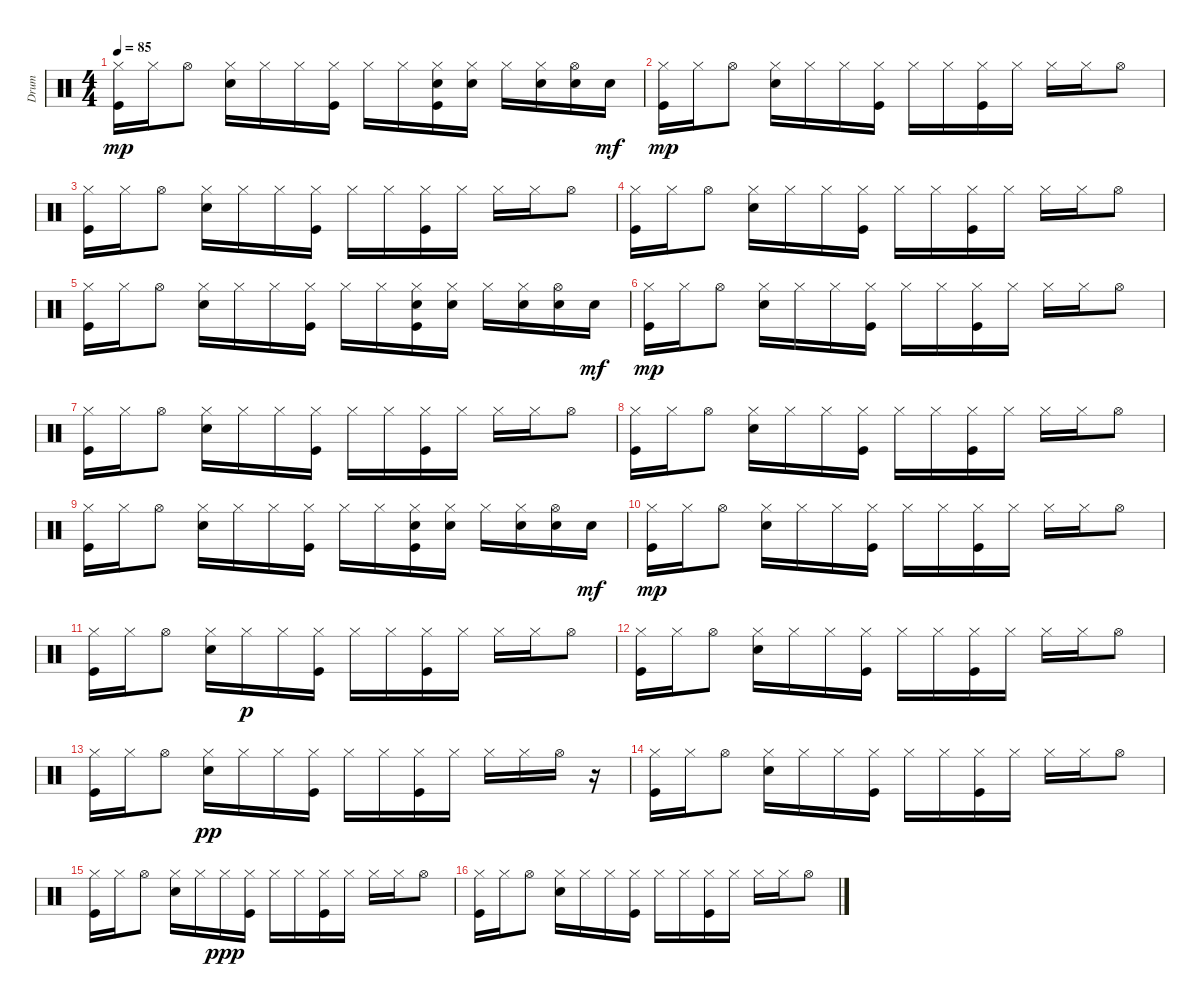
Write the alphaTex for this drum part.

\track ("Drum" "Drum") {instrument percussion}
\staff {score}
\articulation defaults
\ts (4 4)
\tempo 85
\clef neutral
\ks c
("Kick (hit)" "Hi-Hat (closed)").16{dy mp} "Hi-Hat (closed)".16 "Hi-Hat (open)".8 ("Hi-Hat (closed)" "Snare (hit) 2").16 "Hi-Hat (closed)".16 "Hi-Hat (closed)".16 ("Kick (hit)" "Hi-Hat (closed)").16 "Hi-Hat (closed)".16 "Hi-Hat (closed)".16 ("Hi-Hat (closed)" "Snare (hit) 2" "Kick (hit)").16 ("Snare (hit) 2" "Hi-Hat (closed)").16 "Hi-Hat (closed)".16 ("Hi-Hat (closed)" "Snare (hit) 2").16 ("Snare (hit) 2" "Hi-Hat (open)").16 "Snare (hit) 2".16{dy mf} |
("Hi-Hat (closed)" "Kick (hit)").16{dy mp} "Hi-Hat (closed)".16 "Hi-Hat (open)".8 ("Hi-Hat (closed)" "Snare (hit) 2").16 "Hi-Hat (closed)".16 "Hi-Hat (closed)".16 ("Hi-Hat (closed)" "Kick (hit)").16 "Hi-Hat (closed)".16 "Hi-Hat (closed)".16 ("Kick (hit)" "Hi-Hat (closed)").16 "Hi-Hat (closed)".16 "Hi-Hat (closed)".16 "Hi-Hat (closed)".16 "Hi-Hat (open)".8 |
("Kick (hit)" "Hi-Hat (closed)").16 "Hi-Hat (closed)".16 "Hi-Hat (open)".8 ("Snare (hit) 2" "Hi-Hat (closed)").16 "Hi-Hat (closed)".16 "Hi-Hat (closed)".16 ("Hi-Hat (closed)" "Kick (hit)").16 "Hi-Hat (closed)".16 "Hi-Hat (closed)".16 ("Hi-Hat (closed)" "Kick (hit)").16 "Hi-Hat (closed)".16 "Hi-Hat (closed)".16 "Hi-Hat (closed)".16 "Hi-Hat (open)".8 |
("Hi-Hat (closed)" "Kick (hit)").16 "Hi-Hat (closed)".16 "Hi-Hat (open)".8 ("Hi-Hat (closed)" "Snare (hit) 2").16 "Hi-Hat (closed)".16 "Hi-Hat (closed)".16 ("Hi-Hat (closed)" "Kick (hit)").16 "Hi-Hat (closed)".16 "Hi-Hat (closed)".16 ("Hi-Hat (closed)" "Kick (hit)").16 "Hi-Hat (closed)".16 "Hi-Hat (closed)".16 "Hi-Hat (closed)".16 "Hi-Hat (open)".8 |
("Hi-Hat (closed)" "Kick (hit)").16 "Hi-Hat (closed)".16 "Hi-Hat (open)".8 ("Hi-Hat (closed)" "Snare (hit) 2").16 "Hi-Hat (closed)".16 "Hi-Hat (closed)".16 ("Hi-Hat (closed)" "Kick (hit)").16 "Hi-Hat (closed)".16 "Hi-Hat (closed)".16 ("Snare (hit) 2" "Hi-Hat (closed)" "Kick (hit)").16 ("Snare (hit) 2" "Hi-Hat (closed)").16 "Hi-Hat (closed)".16 ("Snare (hit) 2" "Hi-Hat (closed)").16 ("Snare (hit) 2" "Hi-Hat (open)").16 "Snare (hit) 2".16{dy mf} |
("Hi-Hat (closed)" "Kick (hit)").16{dy mp} "Hi-Hat (closed)".16 "Hi-Hat (open)".8 ("Hi-Hat (closed)" "Snare (hit) 2").16 "Hi-Hat (closed)".16 "Hi-Hat (closed)".16 ("Hi-Hat (closed)" "Kick (hit)").16 "Hi-Hat (closed)".16 "Hi-Hat (closed)".16 ("Kick (hit)" "Hi-Hat (closed)").16 "Hi-Hat (closed)".16 "Hi-Hat (closed)".16 "Hi-Hat (closed)".16 "Hi-Hat (open)".8 |
("Kick (hit)" "Hi-Hat (closed)").16 "Hi-Hat (closed)".16 "Hi-Hat (open)".8 ("Snare (hit) 2" "Hi-Hat (closed)").16 "Hi-Hat (closed)".16 "Hi-Hat (closed)".16 ("Hi-Hat (closed)" "Kick (hit)").16 "Hi-Hat (closed)".16 "Hi-Hat (closed)".16 ("Hi-Hat (closed)" "Kick (hit)").16 "Hi-Hat (closed)".16 "Hi-Hat (closed)".16 "Hi-Hat (closed)".16 "Hi-Hat (open)".8 |
("Hi-Hat (closed)" "Kick (hit)").16 "Hi-Hat (closed)".16 "Hi-Hat (open)".8 ("Hi-Hat (closed)" "Snare (hit) 2").16 "Hi-Hat (closed)".16 "Hi-Hat (closed)".16 ("Hi-Hat (closed)" "Kick (hit)").16 "Hi-Hat (closed)".16 "Hi-Hat (closed)".16 ("Hi-Hat (closed)" "Kick (hit)").16 "Hi-Hat (closed)".16 "Hi-Hat (closed)".16 "Hi-Hat (closed)".16 "Hi-Hat (open)".8 |
("Hi-Hat (closed)" "Kick (hit)").16 "Hi-Hat (closed)".16 "Hi-Hat (open)".8 ("Hi-Hat (closed)" "Snare (hit) 2").16 "Hi-Hat (closed)".16 "Hi-Hat (closed)".16 ("Hi-Hat (closed)" "Kick (hit)").16 "Hi-Hat (closed)".16 "Hi-Hat (closed)".16 ("Snare (hit) 2" "Hi-Hat (closed)" "Kick (hit)").16 ("Snare (hit) 2" "Hi-Hat (closed)").16 "Hi-Hat (closed)".16 ("Snare (hit) 2" "Hi-Hat (closed)").16 ("Snare (hit) 2" "Hi-Hat (open)").16 "Snare (hit) 2".16{dy mf} |
("Hi-Hat (closed)" "Kick (hit)").16{dy mp} "Hi-Hat (closed)".16 "Hi-Hat (open)".8 ("Hi-Hat (closed)" "Snare (hit) 2").16 "Hi-Hat (closed)".16 "Hi-Hat (closed)".16 ("Hi-Hat (closed)" "Kick (hit)").16 "Hi-Hat (closed)".16 "Hi-Hat (closed)".16 ("Kick (hit)" "Hi-Hat (closed)").16 "Hi-Hat (closed)".16 "Hi-Hat (closed)".16 "Hi-Hat (closed)".16 "Hi-Hat (open)".8 |
("Kick (hit)" "Hi-Hat (closed)").16 "Hi-Hat (closed)".16 "Hi-Hat (open)".8 ("Snare (hit) 2" "Hi-Hat (closed)").16 "Hi-Hat (closed)".16{dy p} "Hi-Hat (closed)".16 ("Hi-Hat (closed)" "Kick (hit)").16 "Hi-Hat (closed)".16 "Hi-Hat (closed)".16 ("Hi-Hat (closed)" "Kick (hit)").16 "Hi-Hat (closed)".16 "Hi-Hat (closed)".16 "Hi-Hat (closed)".16 "Hi-Hat (open)".8 |
("Hi-Hat (closed)" "Kick (hit)").16 "Hi-Hat (closed)".16 "Hi-Hat (open)".8 ("Hi-Hat (closed)" "Snare (hit) 2").16 "Hi-Hat (closed)".16 "Hi-Hat (closed)".16 ("Hi-Hat (closed)" "Kick (hit)").16 "Hi-Hat (closed)".16 "Hi-Hat (closed)".16 ("Hi-Hat (closed)" "Kick (hit)").16 "Hi-Hat (closed)".16 "Hi-Hat (closed)".16 "Hi-Hat (closed)".16 "Hi-Hat (open)".8 |
("Hi-Hat (closed)" "Kick (hit)").16 "Hi-Hat (closed)".16 "Hi-Hat (open)".8 ("Hi-Hat (closed)" "Snare (hit) 2").16{dy pp} "Hi-Hat (closed)".16 "Hi-Hat (closed)".16 ("Hi-Hat (closed)" "Kick (hit)").16 "Hi-Hat (closed)".16 "Hi-Hat (closed)".16 ("Hi-Hat (closed)" "Kick (hit)").16 "Hi-Hat (closed)".16 "Hi-Hat (closed)".16 "Hi-Hat (closed)".16 "Hi-Hat (open)".16 r.16 |
("Hi-Hat (closed)" "Kick (hit)").16 "Hi-Hat (closed)".16 "Hi-Hat (open)".8 ("Hi-Hat (closed)" "Snare (hit) 2").16 "Hi-Hat (closed)".16 "Hi-Hat (closed)".16 ("Hi-Hat (closed)" "Kick (hit)").16 "Hi-Hat (closed)".16 "Hi-Hat (closed)".16 ("Kick (hit)" "Hi-Hat (closed)").16 "Hi-Hat (closed)".16 "Hi-Hat (closed)".16 "Hi-Hat (closed)".16 "Hi-Hat (open)".8 |
("Kick (hit)" "Hi-Hat (closed)").16 "Hi-Hat (closed)".16 "Hi-Hat (open)".8 ("Snare (hit) 2" "Hi-Hat (closed)").16 "Hi-Hat (closed)".16 "Hi-Hat (closed)".16{dy ppp} ("Hi-Hat (closed)" "Kick (hit)").16 "Hi-Hat (closed)".16 "Hi-Hat (closed)".16 ("Hi-Hat (closed)" "Kick (hit)").16 "Hi-Hat (closed)".16 "Hi-Hat (closed)".16 "Hi-Hat (closed)".16 "Hi-Hat (open)".8 |
("Hi-Hat (closed)" "Kick (hit)").16 "Hi-Hat (closed)".16 "Hi-Hat (open)".8 ("Hi-Hat (closed)" "Snare (hit) 2").16 "Hi-Hat (closed)".16 "Hi-Hat (closed)".16 ("Hi-Hat (closed)" "Kick (hit)").16 "Hi-Hat (closed)".16 "Hi-Hat (closed)".16 ("Hi-Hat (closed)" "Kick (hit)").16 "Hi-Hat (closed)".16 "Hi-Hat (closed)".16 "Hi-Hat (closed)".16 "Hi-Hat (open)".8
